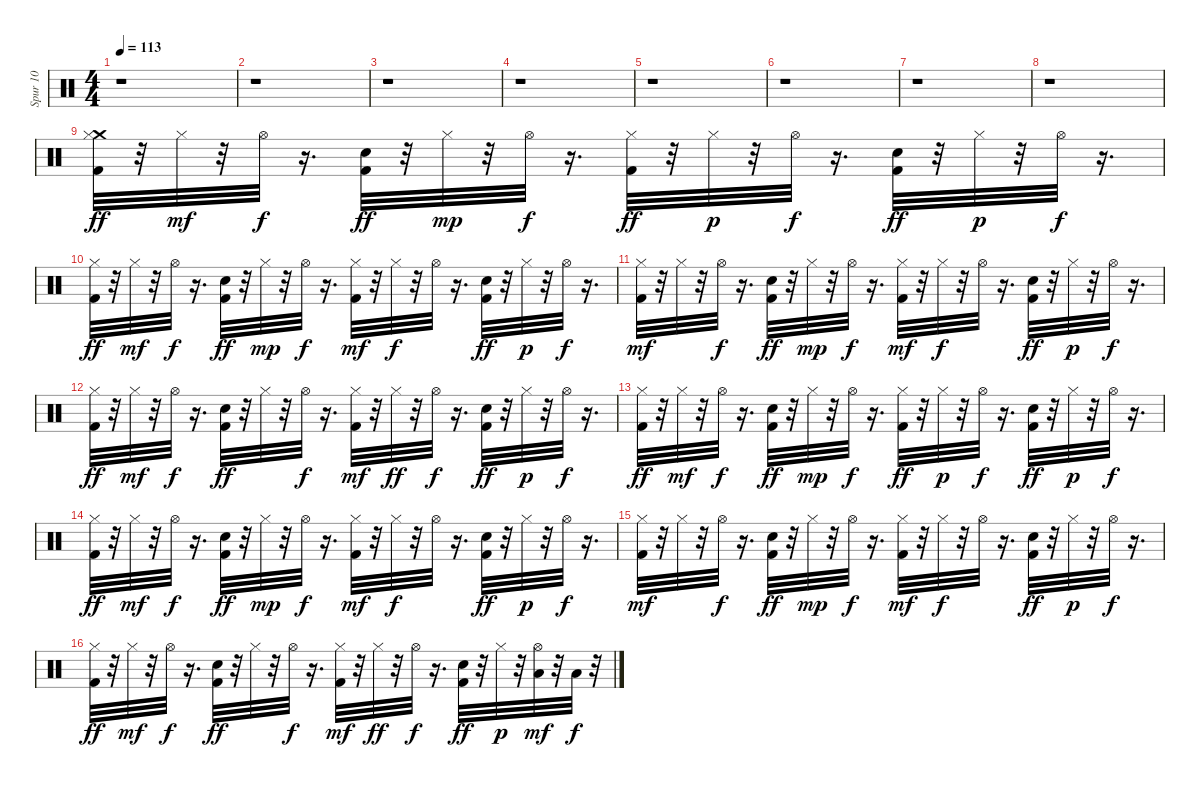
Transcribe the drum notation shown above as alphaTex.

\track ("Spur 10" "Spur 10") {instrument percussion}
\staff {score}
\articulation defaults
\ts (4 4)
\tempo 113
\clef neutral
\ks c
r.1{dy fff} |
r.1 |
r.1 |
r.1 |
r.1 |
r.1 |
r.1 |
r.1 |
("Crash medium (hit)" "Kick (hit) 2" "Hi-Hat (closed)").32{dy ff} r.32 "Hi-Hat (closed)".32{dy mf} r.32 "Hi-Hat (open)".32{dy f} r.16{d} ("Kick (hit) 2" "Snare (hit) 2").32{dy ff} r.32 "Hi-Hat (closed)".32{dy mp} r.32 "Hi-Hat (open)".32{dy f} r.16{d} ("Kick (hit) 2" "Hi-Hat (closed)").32{dy ff} r.32 "Hi-Hat (closed)".32{dy p} r.32 "Hi-Hat (open)".32{dy f} r.16{d} ("Kick (hit) 2" "Snare (hit) 2").32{dy ff} r.32 "Hi-Hat (closed)".32{dy p} r.32 "Hi-Hat (open)".32{dy f} r.16{d} |
("Kick (hit) 2" "Hi-Hat (closed)").32{dy ff} r.32 "Hi-Hat (closed)".32{dy mf} r.32 "Hi-Hat (open)".32{dy f} r.16{d} ("Kick (hit) 2" "Snare (hit) 2").32{dy ff} r.32 "Hi-Hat (closed)".32{dy mp} r.32 "Hi-Hat (open)".32{dy f} r.16{d} ("Kick (hit) 2" "Hi-Hat (closed)").32{dy mf} r.32 "Hi-Hat (closed)".32{dy f} r.32 "Hi-Hat (open)".32 r.16{d} ("Kick (hit) 2" "Snare (hit) 2").32{dy ff} r.32 "Hi-Hat (closed)".32{dy p} r.32 "Hi-Hat (open)".32{dy f} r.16{d} |
("Kick (hit) 2" "Hi-Hat (closed)").32{dy mf} r.32 "Hi-Hat (closed)".32 r.32 "Hi-Hat (open)".32{dy f} r.16{d} ("Kick (hit) 2" "Snare (hit) 2").32{dy ff} r.32 "Hi-Hat (closed)".32{dy mp} r.32 "Hi-Hat (open)".32{dy f} r.16{d} ("Kick (hit) 2" "Hi-Hat (closed)").32{dy mf} r.32 "Hi-Hat (closed)".32{dy f} r.32 "Hi-Hat (open)".32 r.16{d} ("Kick (hit) 2" "Snare (hit) 2").32{dy ff} r.32 "Hi-Hat (closed)".32{dy p} r.32 "Hi-Hat (open)".32{dy f} r.16{d} |
("Kick (hit) 2" "Hi-Hat (closed)").32{dy ff} r.32 "Hi-Hat (closed)".32{dy mf} r.32 "Hi-Hat (open)".32{dy f} r.16{d} ("Kick (hit) 2" "Snare (hit) 2").32{dy ff} r.32 "Hi-Hat (closed)".32 r.32 "Hi-Hat (open)".32{dy f} r.16{d} ("Kick (hit) 2" "Hi-Hat (closed)").32{dy mf} r.32 "Hi-Hat (closed)".32{dy ff} r.32 "Hi-Hat (open)".32{dy f} r.16{d} ("Kick (hit) 2" "Snare (hit) 2").32{dy ff} r.32 "Hi-Hat (closed)".32{dy p} r.32 "Hi-Hat (open)".32{dy f} r.16{d} |
("Kick (hit) 2" "Hi-Hat (closed)").32{dy ff} r.32 "Hi-Hat (closed)".32{dy mf} r.32 "Hi-Hat (open)".32{dy f} r.16{d} ("Kick (hit) 2" "Snare (hit) 2").32{dy ff} r.32 "Hi-Hat (closed)".32{dy mp} r.32 "Hi-Hat (open)".32{dy f} r.16{d} ("Kick (hit) 2" "Hi-Hat (closed)").32{dy ff} r.32 "Hi-Hat (closed)".32{dy p} r.32 "Hi-Hat (open)".32{dy f} r.16{d} ("Kick (hit) 2" "Snare (hit) 2").32{dy ff} r.32 "Hi-Hat (closed)".32{dy p} r.32 "Hi-Hat (open)".32{dy f} r.16{d} |
("Kick (hit) 2" "Hi-Hat (closed)").32{dy ff} r.32 "Hi-Hat (closed)".32{dy mf} r.32 "Hi-Hat (open)".32{dy f} r.16{d} ("Kick (hit) 2" "Snare (hit) 2").32{dy ff} r.32 "Hi-Hat (closed)".32{dy mp} r.32 "Hi-Hat (open)".32{dy f} r.16{d} ("Kick (hit) 2" "Hi-Hat (closed)").32{dy mf} r.32 "Hi-Hat (closed)".32{dy f} r.32 "Hi-Hat (open)".32 r.16{d} ("Kick (hit) 2" "Snare (hit) 2").32{dy ff} r.32 "Hi-Hat (closed)".32{dy p} r.32 "Hi-Hat (open)".32{dy f} r.16{d} |
("Kick (hit) 2" "Hi-Hat (closed)").32{dy mf} r.32 "Hi-Hat (closed)".32 r.32 "Hi-Hat (open)".32{dy f} r.16{d} ("Kick (hit) 2" "Snare (hit) 2").32{dy ff} r.32 "Hi-Hat (closed)".32{dy mp} r.32 "Hi-Hat (open)".32{dy f} r.16{d} ("Kick (hit) 2" "Hi-Hat (closed)").32{dy mf} r.32 "Hi-Hat (closed)".32{dy f} r.32 "Hi-Hat (open)".32 r.16{d} ("Kick (hit) 2" "Snare (hit) 2").32{dy ff} r.32 "Hi-Hat (closed)".32{dy p} r.32 "Hi-Hat (open)".32{dy f} r.16{d} |
("Kick (hit) 2" "Hi-Hat (closed)").32{dy ff} r.32 "Hi-Hat (closed)".32{dy mf} r.32 "Hi-Hat (open)".32{dy f} r.16{d} ("Kick (hit) 2" "Snare (hit) 2").32{dy ff} r.32 "Hi-Hat (closed)".32 r.32 "Hi-Hat (open)".32{dy f} r.16{d} ("Kick (hit) 2" "Hi-Hat (closed)").32{dy mf} r.32 "Hi-Hat (closed)".32{dy ff} r.32 "Hi-Hat (open)".32{dy f} r.16{d} ("Kick (hit) 2" "Snare (hit) 2").32{dy ff} r.32 "Hi-Hat (closed)".32{dy p} r.32 ("Low Floor Tom (hit)" "Hi-Hat (open)").32{dy mf} r.32 "Low Floor Tom (hit)".32{dy f} r.32
